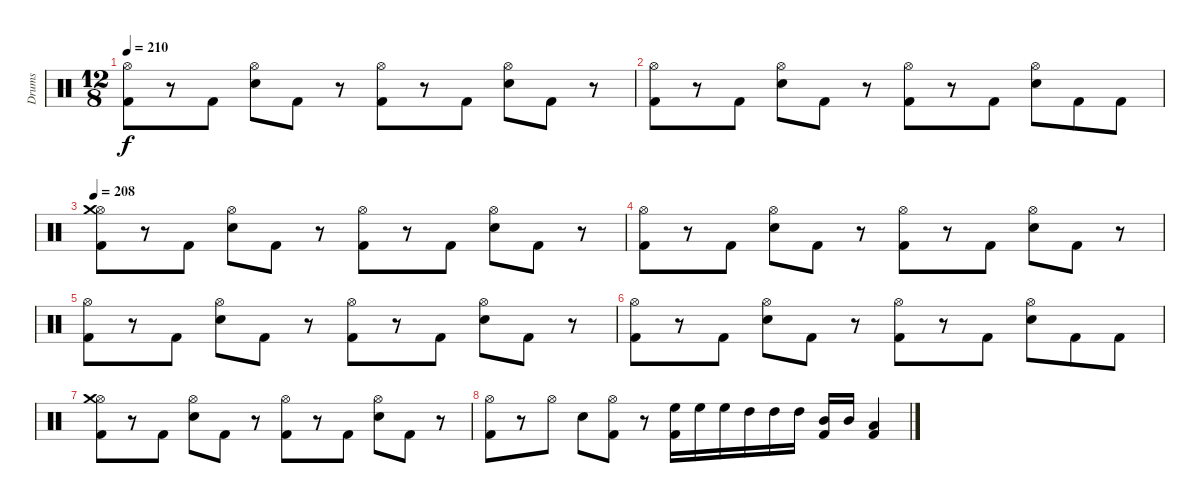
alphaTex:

\track ("Drums" "Drums") {instrument percussion}
\staff {score}
\articulation defaults
\ts (12 8)
\tempo 210
\clef neutral
\ks c
("Hi-Hat (open)" "Kick (hit) 2").8{dy f} r.8 "Kick (hit) 2".8 ("Hi-Hat (open)" "Snare (hit) 2").8 "Kick (hit) 2".8 r.8 ("Hi-Hat (open)" "Kick (hit) 2").8 r.8 "Kick (hit) 2".8 ("Hi-Hat (open)" "Snare (hit) 2").8 "Kick (hit) 2".8 r.8 |
("Hi-Hat (open)" "Kick (hit) 2").8 r.8 "Kick (hit) 2".8 ("Hi-Hat (open)" "Snare (hit) 2").8 "Kick (hit) 2".8 r.8 ("Hi-Hat (open)" "Kick (hit) 2").8 r.8 "Kick (hit) 2".8 ("Hi-Hat (open)" "Snare (hit) 2").8 "Kick (hit) 2".8 "Kick (hit) 2".8 |
\tempo 208
("Hi-Hat (open)" "Crash medium (hit)" "Kick (hit) 2").8 r.8 "Kick (hit) 2".8 ("Hi-Hat (open)" "Snare (hit) 2").8 "Kick (hit) 2".8 r.8 ("Hi-Hat (open)" "Kick (hit) 2").8 r.8 "Kick (hit) 2".8 ("Hi-Hat (open)" "Snare (hit) 2").8 "Kick (hit) 2".8 r.8 |
("Hi-Hat (open)" "Kick (hit) 2").8 r.8 "Kick (hit) 2".8 ("Hi-Hat (open)" "Snare (hit) 2").8 "Kick (hit) 2".8 r.8 ("Hi-Hat (open)" "Kick (hit) 2").8 r.8 "Kick (hit) 2".8 ("Hi-Hat (open)" "Snare (hit) 2").8 "Kick (hit) 2".8 r.8 |
("Hi-Hat (open)" "Kick (hit) 2").8 r.8 "Kick (hit) 2".8 ("Hi-Hat (open)" "Snare (hit) 2").8 "Kick (hit) 2".8 r.8 ("Hi-Hat (open)" "Kick (hit) 2").8 r.8 "Kick (hit) 2".8 ("Hi-Hat (open)" "Snare (hit) 2").8 "Kick (hit) 2".8 r.8 |
("Hi-Hat (open)" "Kick (hit) 2").8 r.8 "Kick (hit) 2".8 ("Hi-Hat (open)" "Snare (hit) 2").8 "Kick (hit) 2".8 r.8 ("Hi-Hat (open)" "Kick (hit) 2").8 r.8 "Kick (hit) 2".8 ("Hi-Hat (open)" "Snare (hit) 2").8 "Kick (hit) 2".8 "Kick (hit) 2".8 |
("Hi-Hat (open)" "Crash medium (hit)" "Kick (hit) 2").8 r.8 "Kick (hit) 2".8 ("Hi-Hat (open)" "Snare (hit) 2").8 "Kick (hit) 2".8 r.8 ("Hi-Hat (open)" "Kick (hit) 2").8 r.8 "Kick (hit) 2".8 ("Hi-Hat (open)" "Snare (hit) 2").8 "Kick (hit) 2".8 r.8 |
("Hi-Hat (open)" "Kick (hit) 2").8 r.8 "Hi-Hat (open)".8 "Snare (hit) 2".8 ("Hi-Hat (open)" "Kick (hit) 2").8 r.8 ("High Floor Tom (hit)" "Kick (hit) 2").16 "High Floor Tom (hit)".16 "High Floor Tom (hit)".16 "High Tom (hit)".16 "High Tom (hit)".16 "High Tom (hit)".16 ("Mid Tom (hit)" "Kick (hit) 2").16 "Mid Tom (hit)".16 ("Low Tom (hit)" "Kick (hit) 2").4
